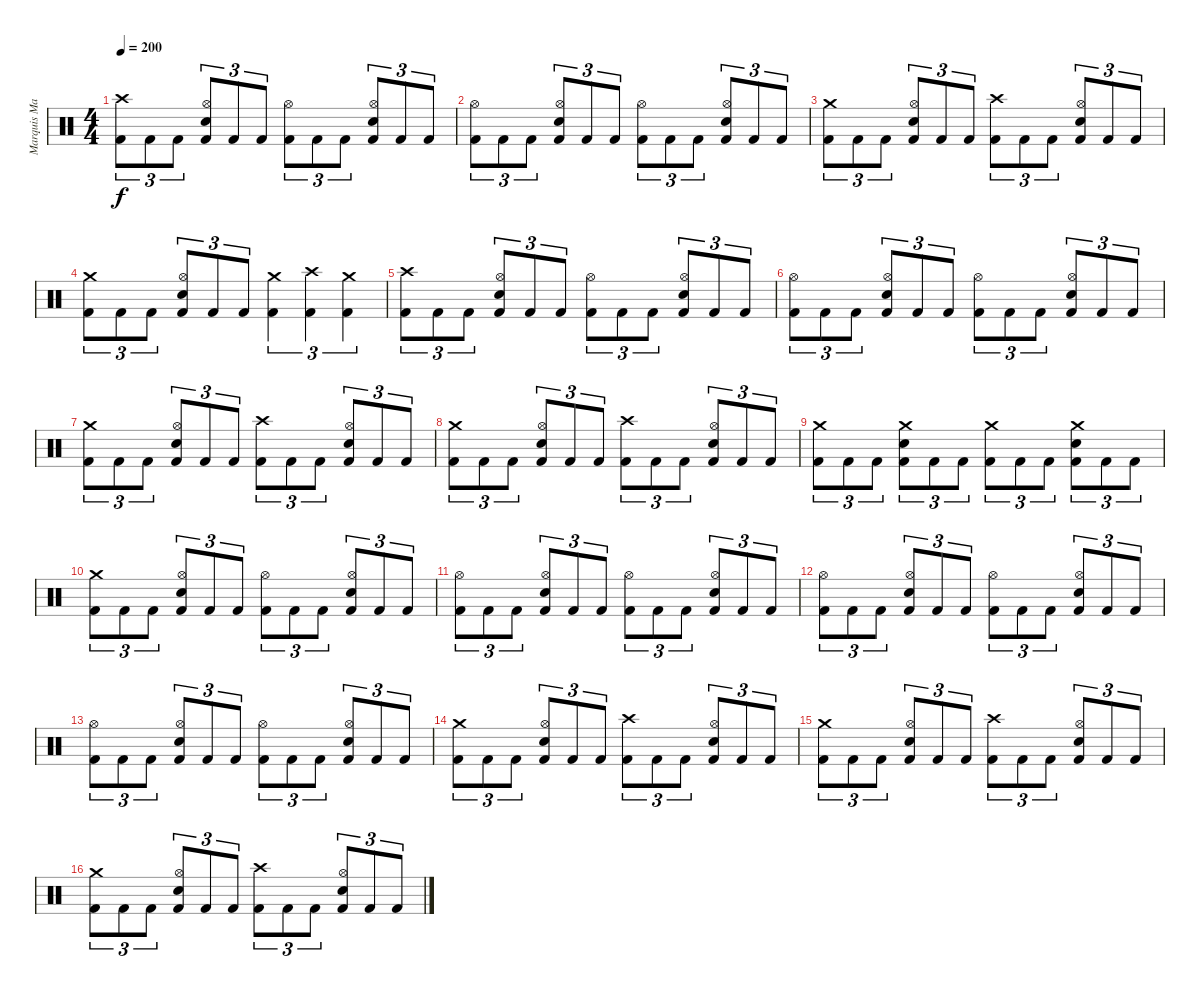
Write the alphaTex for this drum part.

\track ("Marquis Marky (DRUMS)" "Marquis Ma") {instrument percussion}
\staff {score}
\articulation defaults
\ts (4 4)
\tempo 200
\clef neutral
\ks c
("Crash high (hit)" "Kick (hit) 2").8{tu (3 2) dy f} "Kick (hit) 2".8{tu (3 2)} "Kick (hit) 2".8{tu (3 2)} ("Hi-Hat (open)" "Snare (hit) 2" "Kick (hit) 2").8{tu (3 2)} "Kick (hit) 2".8{tu (3 2)} "Kick (hit) 2".8{tu (3 2)} ("Hi-Hat (open)" "Kick (hit) 2").8{tu (3 2)} "Kick (hit) 2".8{tu (3 2)} "Kick (hit) 2".8{tu (3 2)} ("Hi-Hat (open)" "Snare (hit) 2" "Kick (hit) 2").8{tu (3 2)} "Kick (hit) 2".8{tu (3 2)} "Kick (hit) 2".8{tu (3 2)} |
("Hi-Hat (open)" "Kick (hit) 2").8{tu (3 2)} "Kick (hit) 2".8{tu (3 2)} "Kick (hit) 2".8{tu (3 2)} ("Hi-Hat (open)" "Snare (hit) 2" "Kick (hit) 2").8{tu (3 2)} "Kick (hit) 2".8{tu (3 2)} "Kick (hit) 2".8{tu (3 2)} ("Hi-Hat (open)" "Kick (hit) 2").8{tu (3 2)} "Kick (hit) 2".8{tu (3 2)} "Kick (hit) 2".8{tu (3 2)} ("Hi-Hat (open)" "Snare (hit) 2" "Kick (hit) 2").8{tu (3 2)} "Kick (hit) 2".8{tu (3 2)} "Kick (hit) 2".8{tu (3 2)} |
("Crash medium (hit)" "Kick (hit) 2").8{tu (3 2)} "Kick (hit) 2".8{tu (3 2)} "Kick (hit) 2".8{tu (3 2)} ("Hi-Hat (open)" "Snare (hit) 2" "Kick (hit) 2").8{tu (3 2)} "Kick (hit) 2".8{tu (3 2)} "Kick (hit) 2".8{tu (3 2)} ("Crash high (hit)" "Kick (hit) 2").8{tu (3 2)} "Kick (hit) 2".8{tu (3 2)} "Kick (hit) 2".8{tu (3 2)} ("Hi-Hat (open)" "Snare (hit) 2" "Kick (hit) 2").8{tu (3 2)} "Kick (hit) 2".8{tu (3 2)} "Kick (hit) 2".8{tu (3 2)} |
("Crash medium (hit)" "Kick (hit) 2").8{tu (3 2)} "Kick (hit) 2".8{tu (3 2)} "Kick (hit) 2".8{tu (3 2)} ("Hi-Hat (open)" "Snare (hit) 2" "Kick (hit) 2").8{tu (3 2)} "Kick (hit) 2".8{tu (3 2)} "Kick (hit) 2".8{tu (3 2)} ("Crash medium (hit)" "Kick (hit) 2").4{tu (3 2)} ("Crash high (hit)" "Kick (hit) 2").4{tu (3 2)} ("Crash medium (hit)" "Kick (hit) 2").4{tu (3 2)} |
("Crash high (hit)" "Kick (hit) 2").8{tu (3 2)} "Kick (hit) 2".8{tu (3 2)} "Kick (hit) 2".8{tu (3 2)} ("Hi-Hat (open)" "Snare (hit) 2" "Kick (hit) 2").8{tu (3 2)} "Kick (hit) 2".8{tu (3 2)} "Kick (hit) 2".8{tu (3 2)} ("Hi-Hat (open)" "Kick (hit) 2").8{tu (3 2)} "Kick (hit) 2".8{tu (3 2)} "Kick (hit) 2".8{tu (3 2)} ("Hi-Hat (open)" "Snare (hit) 2" "Kick (hit) 2").8{tu (3 2)} "Kick (hit) 2".8{tu (3 2)} "Kick (hit) 2".8{tu (3 2)} |
("Hi-Hat (open)" "Kick (hit) 2").8{tu (3 2)} "Kick (hit) 2".8{tu (3 2)} "Kick (hit) 2".8{tu (3 2)} ("Hi-Hat (open)" "Snare (hit) 2" "Kick (hit) 2").8{tu (3 2)} "Kick (hit) 2".8{tu (3 2)} "Kick (hit) 2".8{tu (3 2)} ("Hi-Hat (open)" "Kick (hit) 2").8{tu (3 2)} "Kick (hit) 2".8{tu (3 2)} "Kick (hit) 2".8{tu (3 2)} ("Hi-Hat (open)" "Snare (hit) 2" "Kick (hit) 2").8{tu (3 2)} "Kick (hit) 2".8{tu (3 2)} "Kick (hit) 2".8{tu (3 2)} |
("Crash medium (hit)" "Kick (hit) 2").8{tu (3 2)} "Kick (hit) 2".8{tu (3 2)} "Kick (hit) 2".8{tu (3 2)} ("Hi-Hat (open)" "Snare (hit) 2" "Kick (hit) 2").8{tu (3 2)} "Kick (hit) 2".8{tu (3 2)} "Kick (hit) 2".8{tu (3 2)} ("Crash high (hit)" "Kick (hit) 2").8{tu (3 2)} "Kick (hit) 2".8{tu (3 2)} "Kick (hit) 2".8{tu (3 2)} ("Hi-Hat (open)" "Snare (hit) 2" "Kick (hit) 2").8{tu (3 2)} "Kick (hit) 2".8{tu (3 2)} "Kick (hit) 2".8{tu (3 2)} |
("Crash medium (hit)" "Kick (hit) 2").8{tu (3 2)} "Kick (hit) 2".8{tu (3 2)} "Kick (hit) 2".8{tu (3 2)} ("Hi-Hat (open)" "Snare (hit) 2" "Kick (hit) 2").8{tu (3 2)} "Kick (hit) 2".8{tu (3 2)} "Kick (hit) 2".8{tu (3 2)} ("Crash high (hit)" "Kick (hit) 2").8{tu (3 2)} "Kick (hit) 2".8{tu (3 2)} "Kick (hit) 2".8{tu (3 2)} ("Hi-Hat (open)" "Snare (hit) 2" "Kick (hit) 2").8{tu (3 2)} "Kick (hit) 2".8{tu (3 2)} "Kick (hit) 2".8{tu (3 2)} |
("Crash medium (hit)" "Kick (hit) 2").8{tu (3 2)} "Kick (hit) 2".8{tu (3 2)} "Kick (hit) 2".8{tu (3 2)} ("Crash medium (hit)" "Snare (hit) 2" "Kick (hit) 2").8{tu (3 2)} "Kick (hit) 2".8{tu (3 2)} "Kick (hit) 2".8{tu (3 2)} ("Crash medium (hit)" "Kick (hit) 2").8{tu (3 2)} "Kick (hit) 2".8{tu (3 2)} "Kick (hit) 2".8{tu (3 2)} ("Crash medium (hit)" "Snare (hit) 2" "Kick (hit) 2").8{tu (3 2)} "Kick (hit) 2".8{tu (3 2)} "Kick (hit) 2".8{tu (3 2)} |
("Crash medium (hit)" "Kick (hit) 2").8{tu (3 2)} "Kick (hit) 2".8{tu (3 2)} "Kick (hit) 2".8{tu (3 2)} ("Hi-Hat (open)" "Snare (hit) 2" "Kick (hit) 2").8{tu (3 2)} "Kick (hit) 2".8{tu (3 2)} "Kick (hit) 2".8{tu (3 2)} ("Hi-Hat (open)" "Kick (hit) 2").8{tu (3 2)} "Kick (hit) 2".8{tu (3 2)} "Kick (hit) 2".8{tu (3 2)} ("Hi-Hat (open)" "Snare (hit) 2" "Kick (hit) 2").8{tu (3 2)} "Kick (hit) 2".8{tu (3 2)} "Kick (hit) 2".8{tu (3 2)} |
("Hi-Hat (open)" "Kick (hit) 2").8{tu (3 2)} "Kick (hit) 2".8{tu (3 2)} "Kick (hit) 2".8{tu (3 2)} ("Hi-Hat (open)" "Snare (hit) 2" "Kick (hit) 2").8{tu (3 2)} "Kick (hit) 2".8{tu (3 2)} "Kick (hit) 2".8{tu (3 2)} ("Hi-Hat (open)" "Kick (hit) 2").8{tu (3 2)} "Kick (hit) 2".8{tu (3 2)} "Kick (hit) 2".8{tu (3 2)} ("Hi-Hat (open)" "Snare (hit) 2" "Kick (hit) 2").8{tu (3 2)} "Kick (hit) 2".8{tu (3 2)} "Kick (hit) 2".8{tu (3 2)} |
("Hi-Hat (open)" "Kick (hit) 2").8{tu (3 2)} "Kick (hit) 2".8{tu (3 2)} "Kick (hit) 2".8{tu (3 2)} ("Hi-Hat (open)" "Snare (hit) 2" "Kick (hit) 2").8{tu (3 2)} "Kick (hit) 2".8{tu (3 2)} "Kick (hit) 2".8{tu (3 2)} ("Hi-Hat (open)" "Kick (hit) 2").8{tu (3 2)} "Kick (hit) 2".8{tu (3 2)} "Kick (hit) 2".8{tu (3 2)} ("Hi-Hat (open)" "Snare (hit) 2" "Kick (hit) 2").8{tu (3 2)} "Kick (hit) 2".8{tu (3 2)} "Kick (hit) 2".8{tu (3 2)} |
("Hi-Hat (open)" "Kick (hit) 2").8{tu (3 2)} "Kick (hit) 2".8{tu (3 2)} "Kick (hit) 2".8{tu (3 2)} ("Hi-Hat (open)" "Snare (hit) 2" "Kick (hit) 2").8{tu (3 2)} "Kick (hit) 2".8{tu (3 2)} "Kick (hit) 2".8{tu (3 2)} ("Hi-Hat (open)" "Kick (hit) 2").8{tu (3 2)} "Kick (hit) 2".8{tu (3 2)} "Kick (hit) 2".8{tu (3 2)} ("Hi-Hat (open)" "Snare (hit) 2" "Kick (hit) 2").8{tu (3 2)} "Kick (hit) 2".8{tu (3 2)} "Kick (hit) 2".8{tu (3 2)} |
("Crash medium (hit)" "Kick (hit) 2").8{tu (3 2)} "Kick (hit) 2".8{tu (3 2)} "Kick (hit) 2".8{tu (3 2)} ("Hi-Hat (open)" "Snare (hit) 2" "Kick (hit) 2").8{tu (3 2)} "Kick (hit) 2".8{tu (3 2)} "Kick (hit) 2".8{tu (3 2)} ("Crash high (hit)" "Kick (hit) 2").8{tu (3 2)} "Kick (hit) 2".8{tu (3 2)} "Kick (hit) 2".8{tu (3 2)} ("Hi-Hat (open)" "Snare (hit) 2" "Kick (hit) 2").8{tu (3 2)} "Kick (hit) 2".8{tu (3 2)} "Kick (hit) 2".8{tu (3 2)} |
("Crash medium (hit)" "Kick (hit) 2").8{tu (3 2)} "Kick (hit) 2".8{tu (3 2)} "Kick (hit) 2".8{tu (3 2)} ("Hi-Hat (open)" "Snare (hit) 2" "Kick (hit) 2").8{tu (3 2)} "Kick (hit) 2".8{tu (3 2)} "Kick (hit) 2".8{tu (3 2)} ("Crash high (hit)" "Kick (hit) 2").8{tu (3 2)} "Kick (hit) 2".8{tu (3 2)} "Kick (hit) 2".8{tu (3 2)} ("Hi-Hat (open)" "Snare (hit) 2" "Kick (hit) 2").8{tu (3 2)} "Kick (hit) 2".8{tu (3 2)} "Kick (hit) 2".8{tu (3 2)} |
("Crash medium (hit)" "Kick (hit) 2").8{tu (3 2)} "Kick (hit) 2".8{tu (3 2)} "Kick (hit) 2".8{tu (3 2)} ("Hi-Hat (open)" "Snare (hit) 2" "Kick (hit) 2").8{tu (3 2)} "Kick (hit) 2".8{tu (3 2)} "Kick (hit) 2".8{tu (3 2)} ("Crash high (hit)" "Kick (hit) 2").8{tu (3 2)} "Kick (hit) 2".8{tu (3 2)} "Kick (hit) 2".8{tu (3 2)} ("Hi-Hat (open)" "Snare (hit) 2" "Kick (hit) 2").8{tu (3 2)} "Kick (hit) 2".8{tu (3 2)} "Kick (hit) 2".8{tu (3 2)}
